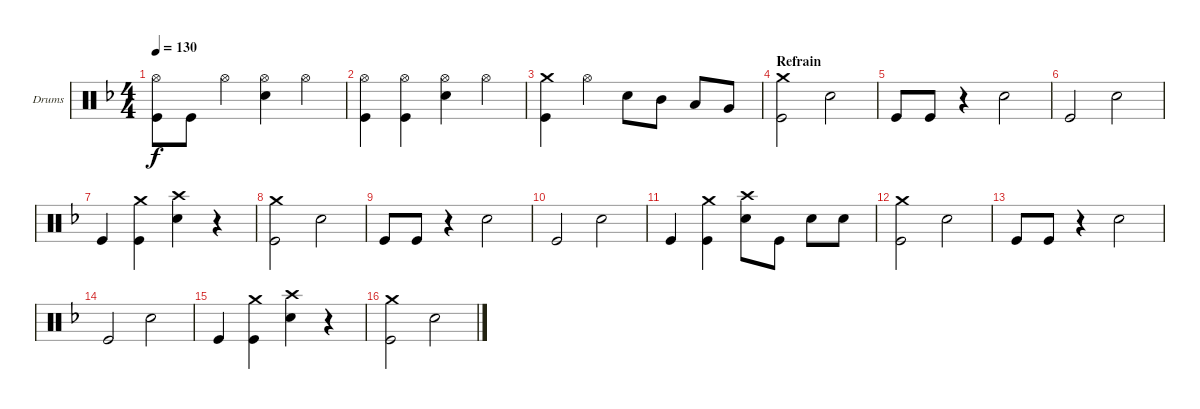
\defaultSystemsLayout 4
\bracketExtendMode groupsimilarinstruments
\firstSystemTrackNameOrientation horizontal
\otherSystemsTrackNameOrientation horizontal
\track ("Drumkit" "Drums") {instrument percussion}
\staff {score}
\articulation defaults
\ts (4 4)
\tempo 130
\clef neutral
\ks dminor
("Kick (hit)" "Hi-Hat (open)").8{dy f} "Kick (hit)".8 "Hi-Hat (open)".4 ("Hi-Hat (open)" "Snare (hit) 2").4 "Hi-Hat (open)".4 |
("Kick (hit)" "Hi-Hat (open)").4 ("Kick (hit)" "Hi-Hat (open)").4 ("Hi-Hat (open)" "Snare (hit) 2").4 "Hi-Hat (open)".4 |
("Kick (hit)" "Crash medium (hit)").4 "Hi-Hat (open)".4 "Snare (hit) 2".8 "Mid Tom (hit)".8 "Low Tom (hit)".8 "Very Low Tom (hit)".8 |
\section ("" "Refrain")
("Crash medium (hit)" "Kick (hit)").2 "Snare (hit) 2".2 |
"Kick (hit)".8 "Kick (hit)".8 r.4 "Snare (hit) 2".2 |
"Kick (hit)".2 "Snare (hit) 2".2 |
"Kick (hit)".4 ("Kick (hit)" "Crash medium (hit)").4 ("Crash high (hit)" "Snare (hit) 2").4 r.4 |
("Crash medium (hit)" "Kick (hit)").2 "Snare (hit) 2".2 |
"Kick (hit)".8 "Kick (hit)".8 r.4 "Snare (hit) 2".2 |
"Kick (hit)".2 "Snare (hit) 2".2 |
"Kick (hit)".4 ("Kick (hit)" "Crash medium (hit)").4 ("Crash high (hit)" "Snare (hit) 2").8 "Kick (hit)".8 "Snare (hit) 2".8 "Snare (hit) 2".8 |
("Crash medium (hit)" "Kick (hit)").2 "Snare (hit) 2".2 |
"Kick (hit)".8 "Kick (hit)".8 r.4 "Snare (hit) 2".2 |
"Kick (hit)".2 "Snare (hit) 2".2 |
"Kick (hit)".4 ("Kick (hit)" "Crash medium (hit)").4 ("Crash high (hit)" "Snare (hit) 2").4 r.4 |
("Crash medium (hit)" "Kick (hit)").2 "Snare (hit) 2".2
